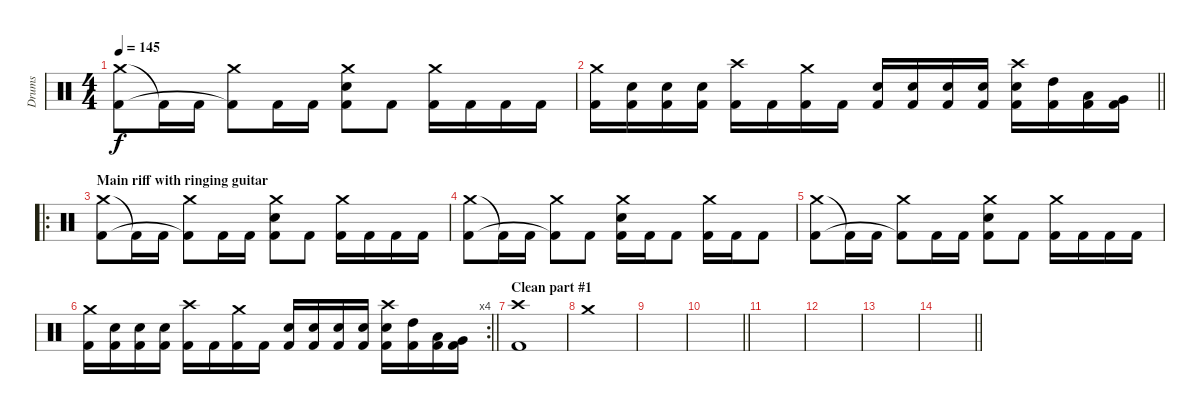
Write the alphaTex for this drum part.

\track ("Drums" "Drums") {mute instrument percussion}
\staff {score}
\articulation defaults
\ts (4 4)
\tempo 145
\clef neutral
\ks c
("Crash medium (hit)" "Kick (hit) 2").8{dy f} "Kick (hit) 2"{t}.16 "Kick (hit) 2".16 ("Crash medium (hit)" "Kick (hit) 2"{t}).8 "Kick (hit) 2".16 "Kick (hit) 2".16 ("Crash medium (hit)" "Electric Snare (hit)" "Kick (hit) 2").8 "Kick (hit) 2".8 ("Crash medium (hit)" "Kick (hit) 2").16 "Kick (hit) 2".16 "Kick (hit) 2".16 "Kick (hit) 2".16 |
\barLineRight lightlight
("Crash medium (hit)" "Kick (hit) 2").16 ("Electric Snare (hit)" "Kick (hit) 2").16 ("Electric Snare (hit)" "Kick (hit) 2").16 ("Electric Snare (hit)" "Kick (hit) 2").16 ("Crash high (hit)" "Kick (hit) 2").16 "Kick (hit) 2".16 ("Crash medium (hit)" "Kick (hit) 2").16 "Kick (hit) 2".16 ("Electric Snare (hit)" "Kick (hit) 2").16 ("Electric Snare (hit)" "Kick (hit) 2").16 ("Electric Snare (hit)" "Kick (hit) 2").16 ("Electric Snare (hit)" "Kick (hit) 2").16 ("Crash high (hit)" "Electric Snare (hit)" "Kick (hit) 2").16 ("High Tom (hit)" "Kick (hit) 2").16 ("Low Tom (hit)" "Kick (hit) 2").16 ("Very Low Tom (hit)" "Kick (hit) 2").16 |
\ro
\section ("" "Main riff with ringing guitar")
("Crash medium (hit)" "Kick (hit) 2").8 "Kick (hit) 2"{t}.16 "Kick (hit) 2".16 ("Crash medium (hit)" "Kick (hit) 2"{t}).8 "Kick (hit) 2".16 "Kick (hit) 2".16 ("Crash medium (hit)" "Electric Snare (hit)" "Kick (hit) 2").8 "Kick (hit) 2".8 ("Crash medium (hit)" "Kick (hit) 2").16 "Kick (hit) 2".16 "Kick (hit) 2".16 "Kick (hit) 2".16 |
("Crash medium (hit)" "Kick (hit) 2").8 "Kick (hit) 2"{t}.16 "Kick (hit) 2".16 ("Crash medium (hit)" "Kick (hit) 2"{t}).8 "Kick (hit) 2".8 ("Crash medium (hit)" "Electric Snare (hit)" "Kick (hit) 2").16 "Kick (hit) 2".16 "Kick (hit) 2".8 ("Crash medium (hit)" "Kick (hit) 2").16 "Kick (hit) 2".16 "Kick (hit) 2".8 |
("Crash medium (hit)" "Kick (hit) 2").8 "Kick (hit) 2"{t}.16 "Kick (hit) 2".16 ("Crash medium (hit)" "Kick (hit) 2"{t}).8 "Kick (hit) 2".16 "Kick (hit) 2".16 ("Crash medium (hit)" "Electric Snare (hit)" "Kick (hit) 2").8 "Kick (hit) 2".8 ("Crash medium (hit)" "Kick (hit) 2").16 "Kick (hit) 2".16 "Kick (hit) 2".16 "Kick (hit) 2".16 |
\rc 4
\barLineRight lightlight
("Crash medium (hit)" "Kick (hit) 2").16 ("Electric Snare (hit)" "Kick (hit) 2").16 ("Electric Snare (hit)" "Kick (hit) 2").16 ("Electric Snare (hit)" "Kick (hit) 2").16 ("Crash high (hit)" "Kick (hit) 2").16 "Kick (hit) 2".16 ("Crash medium (hit)" "Kick (hit) 2").16 "Kick (hit) 2".16 ("Electric Snare (hit)" "Kick (hit) 2").16 ("Electric Snare (hit)" "Kick (hit) 2").16 ("Electric Snare (hit)" "Kick (hit) 2").16 ("Electric Snare (hit)" "Kick (hit) 2").16 ("Crash high (hit)" "Electric Snare (hit)" "Kick (hit) 2").16 ("High Tom (hit)" "Kick (hit) 2").16 ("Low Tom (hit)" "Kick (hit) 2").16 ("Very Low Tom (hit)" "Kick (hit) 2").16 |
\section ("" "Clean part #1")
("Crash high (hit)" "Kick (hit) 2").1 |
"Crash medium (hit)".1 |
|
\barLineRight lightlight
|
|
|
|
\barLineRight lightlight
